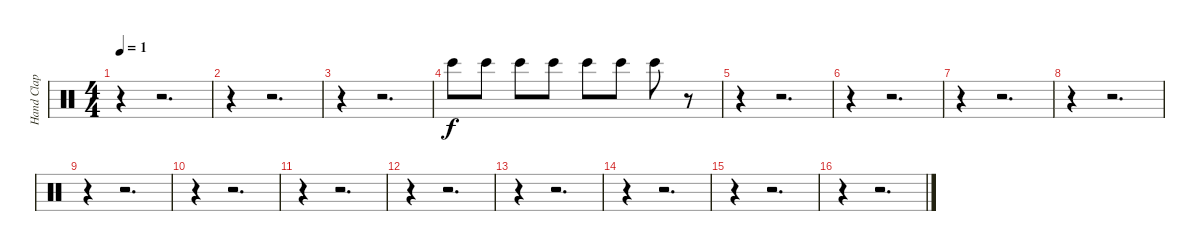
\track ("Hand Clap" "Hand Clap") {instrument percussion}
\staff {score}
\articulation defaults
\ts (4 4)
\tempo 1
\clef neutral
\ks c
r.4{dy f} r.2{d} |
r.4 r.2{d} |
r.4 r.2{d} |
"Bongo High (hit)".8 "Bongo High (hit)".8 "Bongo High (hit)".8 "Bongo High (hit)".8 "Bongo High (hit)".8 "Bongo High (hit)".8 "Bongo High (hit)".8 r.8 |
r.4 r.2{d} |
r.4 r.2{d} |
r.4 r.2{d} |
r.4 r.2{d} |
r.4 r.2{d} |
r.4 r.2{d} |
r.4 r.2{d} |
r.4 r.2{d} |
r.4 r.2{d} |
r.4 r.2{d} |
r.4 r.2{d} |
r.4 r.2{d}
